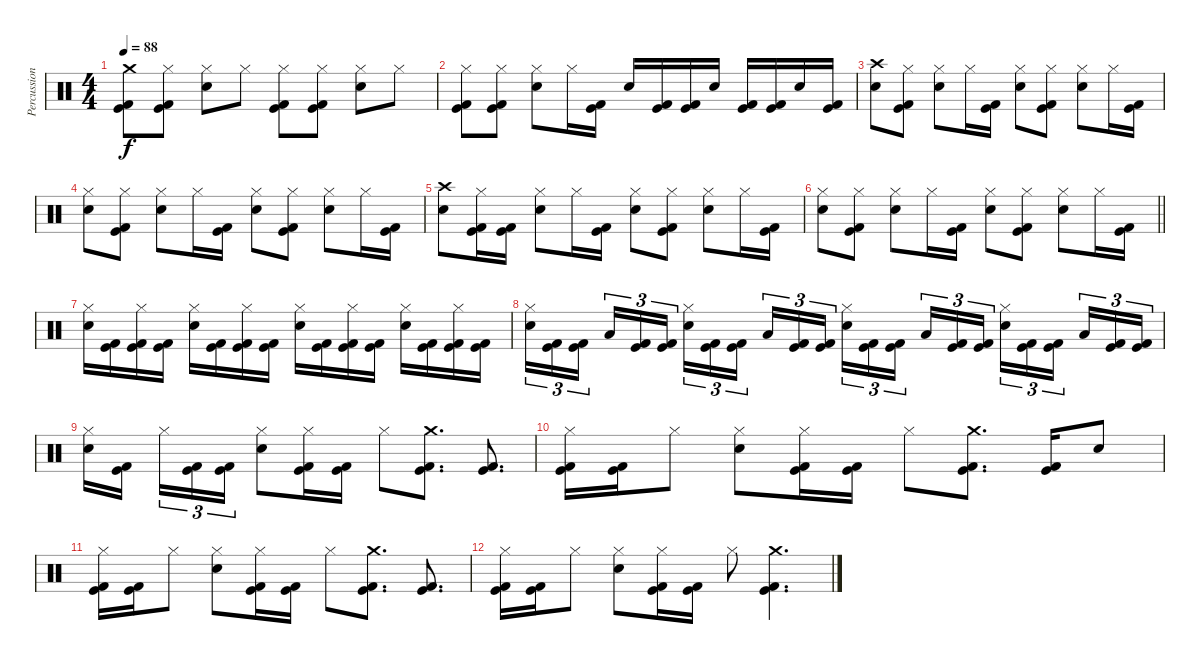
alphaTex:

\track ("Percussion" "Percussion") {instrument percussion}
\staff {score}
\articulation defaults
\ts (4 4)
\tempo 88
\clef neutral
\ks c
("Crash medium (hit)" "Kick (hit)" "Kick (hit) 2").8{dy f} ("Hi-Hat (closed)" "Kick (hit)" "Kick (hit) 2").8 ("Hi-Hat (closed)" "Electric Snare (hit)").8 "Hi-Hat (closed)".8 ("Hi-Hat (closed)" "Kick (hit)" "Kick (hit) 2").8 ("Hi-Hat (closed)" "Kick (hit)" "Kick (hit) 2").8 ("Hi-Hat (closed)" "Electric Snare (hit)").8 "Hi-Hat (closed)".8 |
("Hi-Hat (closed)" "Kick (hit)" "Kick (hit) 2").8 ("Hi-Hat (closed)" "Kick (hit)" "Kick (hit) 2").8 ("Hi-Hat (closed)" "Electric Snare (hit)").8 "Hi-Hat (closed)".16 ("Kick (hit)" "Kick (hit) 2").16 "Electric Snare (hit)".16 ("Kick (hit)" "Kick (hit) 2").16 ("Kick (hit)" "Kick (hit) 2").16 "Electric Snare (hit)".16 ("Kick (hit)" "Kick (hit) 2").16 ("Kick (hit)" "Kick (hit) 2").16 "Electric Snare (hit)".16 ("Kick (hit)" "Kick (hit) 2").16 |
("Crash high (hit)" "Electric Snare (hit)").8 ("Hi-Hat (closed)" "Kick (hit)" "Kick (hit) 2").8 ("Hi-Hat (closed)" "Electric Snare (hit)").8 "Hi-Hat (closed)".16 ("Kick (hit)" "Kick (hit) 2").16 ("Hi-Hat (closed)" "Electric Snare (hit)").8 ("Hi-Hat (closed)" "Kick (hit)" "Kick (hit) 2").8 ("Hi-Hat (closed)" "Electric Snare (hit)").8 "Hi-Hat (closed)".16 ("Kick (hit)" "Kick (hit) 2").16 |
("Hi-Hat (closed)" "Electric Snare (hit)").8 ("Hi-Hat (closed)" "Kick (hit)" "Kick (hit) 2").8 ("Hi-Hat (closed)" "Electric Snare (hit)").8 "Hi-Hat (closed)".16 ("Kick (hit)" "Kick (hit) 2").16 ("Hi-Hat (closed)" "Electric Snare (hit)").8 ("Hi-Hat (closed)" "Kick (hit)" "Kick (hit) 2").8 ("Hi-Hat (closed)" "Electric Snare (hit)").8 "Hi-Hat (closed)".16 ("Kick (hit)" "Kick (hit) 2").16 |
("Crash high (hit)" "Electric Snare (hit)").8 ("Hi-Hat (closed)" "Kick (hit)" "Kick (hit) 2").16 ("Kick (hit)" "Kick (hit) 2").16 ("Hi-Hat (closed)" "Electric Snare (hit)").8 "Hi-Hat (closed)".16 ("Kick (hit)" "Kick (hit) 2").16 ("Hi-Hat (closed)" "Electric Snare (hit)").8 ("Hi-Hat (closed)" "Kick (hit)" "Kick (hit) 2").8 ("Hi-Hat (closed)" "Electric Snare (hit)").8 "Hi-Hat (closed)".16 ("Kick (hit)" "Kick (hit) 2").16 |
\barLineRight lightlight
("Hi-Hat (closed)" "Electric Snare (hit)").8 ("Hi-Hat (closed)" "Kick (hit)" "Kick (hit) 2").8 ("Hi-Hat (closed)" "Electric Snare (hit)").8 "Hi-Hat (closed)".16 ("Kick (hit)" "Kick (hit) 2").16 ("Hi-Hat (closed)" "Electric Snare (hit)").8 ("Hi-Hat (closed)" "Kick (hit)" "Kick (hit) 2").8 ("Hi-Hat (closed)" "Electric Snare (hit)").8 "Hi-Hat (closed)".16 ("Kick (hit)" "Kick (hit) 2").16 |
\section ("" "")
("Hi-Hat (closed)" "Electric Snare (hit)").16 ("Kick (hit)" "Kick (hit) 2").16 ("Hi-Hat (closed)" "Kick (hit)" "Kick (hit) 2").16 ("Kick (hit)" "Kick (hit) 2").16 ("Hi-Hat (closed)" "Electric Snare (hit)").16 ("Kick (hit)" "Kick (hit) 2").16 ("Hi-Hat (closed)" "Kick (hit)" "Kick (hit) 2").16 ("Kick (hit)" "Kick (hit) 2").16 ("Hi-Hat (closed)" "Electric Snare (hit)").16 ("Kick (hit)" "Kick (hit) 2").16 ("Hi-Hat (closed)" "Kick (hit)" "Kick (hit) 2").16 ("Kick (hit)" "Kick (hit) 2").16 ("Hi-Hat (closed)" "Electric Snare (hit)").16 ("Kick (hit)" "Kick (hit) 2").16 ("Hi-Hat (closed)" "Kick (hit)" "Kick (hit) 2").16 ("Kick (hit)" "Kick (hit) 2").16 |
("Hi-Hat (closed)" "Electric Snare (hit)").16{tu (3 2)} ("Kick (hit)" "Kick (hit) 2").16{tu (3 2)} ("Kick (hit)" "Kick (hit) 2").16{tu (3 2) beam splitsecondary} "Low Tom (hit)".16{tu (3 2)} ("Kick (hit)" "Kick (hit) 2").16{tu (3 2)} ("Kick (hit)" "Kick (hit) 2").16{tu (3 2)} ("Hi-Hat (closed)" "Electric Snare (hit)").16{tu (3 2)} ("Kick (hit)" "Kick (hit) 2").16{tu (3 2)} ("Kick (hit)" "Kick (hit) 2").16{tu (3 2) beam splitsecondary} "Low Tom (hit)".16{tu (3 2)} ("Kick (hit)" "Kick (hit) 2").16{tu (3 2)} ("Kick (hit)" "Kick (hit) 2").16{tu (3 2)} ("Hi-Hat (closed)" "Electric Snare (hit)").16{tu (3 2)} ("Kick (hit)" "Kick (hit) 2").16{tu (3 2)} ("Kick (hit)" "Kick (hit) 2").16{tu (3 2) beam splitsecondary} "Low Tom (hit)".16{tu (3 2)} ("Kick (hit)" "Kick (hit) 2").16{tu (3 2)} ("Kick (hit)" "Kick (hit) 2").16{tu (3 2)} ("Hi-Hat (closed)" "Electric Snare (hit)").16{tu (3 2)} ("Kick (hit)" "Kick (hit) 2").16{tu (3 2)} ("Kick (hit)" "Kick (hit) 2").16{tu (3 2) beam splitsecondary} "Low Tom (hit)".16{tu (3 2)} ("Kick (hit)" "Kick (hit) 2").16{tu (3 2)} ("Kick (hit)" "Kick (hit) 2").16{tu (3 2)} |
("Hi-Hat (closed)" "Electric Snare (hit)").16 ("Kick (hit)" "Kick (hit) 2").16{beam splitsecondary} "Hi-Hat (closed)".16{tu (3 2)} ("Kick (hit)" "Kick (hit) 2").16{tu (3 2)} ("Kick (hit)" "Kick (hit) 2").16{tu (3 2)} ("Hi-Hat (closed)" "Electric Snare (hit)").8 ("Hi-Hat (closed)" "Kick (hit)" "Kick (hit) 2").16 ("Kick (hit)" "Kick (hit) 2").16 "Hi-Hat (closed)".8 ("Crash medium (hit)" "Kick (hit)" "Kick (hit) 2").8{d} ("Kick (hit)" "Kick (hit) 2").8{d} |
("Hi-Hat (closed)" "Kick (hit)" "Kick (hit) 2").16 ("Kick (hit)" "Kick (hit) 2").16 "Hi-Hat (closed)".8 ("Hi-Hat (closed)" "Electric Snare (hit)").8 ("Hi-Hat (closed)" "Kick (hit)" "Kick (hit) 2").16 ("Kick (hit)" "Kick (hit) 2").16 "Hi-Hat (closed)".8 ("Crash medium (hit)" "Kick (hit)" "Kick (hit) 2").8{d} ("Kick (hit)" "Kick (hit) 2").16 "Electric Snare (hit)".8 |
("Hi-Hat (closed)" "Kick (hit)" "Kick (hit) 2").16 ("Kick (hit)" "Kick (hit) 2").16 "Hi-Hat (closed)".8 ("Hi-Hat (closed)" "Electric Snare (hit)").8 ("Hi-Hat (closed)" "Kick (hit)" "Kick (hit) 2").16 ("Kick (hit)" "Kick (hit) 2").16 "Hi-Hat (closed)".8 ("Crash medium (hit)" "Kick (hit)" "Kick (hit) 2").8{d} ("Kick (hit)" "Kick (hit) 2").8{d} |
("Hi-Hat (closed)" "Kick (hit)" "Kick (hit) 2").16 ("Kick (hit)" "Kick (hit) 2").16 "Hi-Hat (closed)".8 ("Hi-Hat (closed)" "Electric Snare (hit)").8 ("Hi-Hat (closed)" "Kick (hit)" "Kick (hit) 2").16 ("Kick (hit)" "Kick (hit) 2").16 "Hi-Hat (closed)".8 ("Crash medium (hit)" "Kick (hit)" "Kick (hit) 2").4{d}
